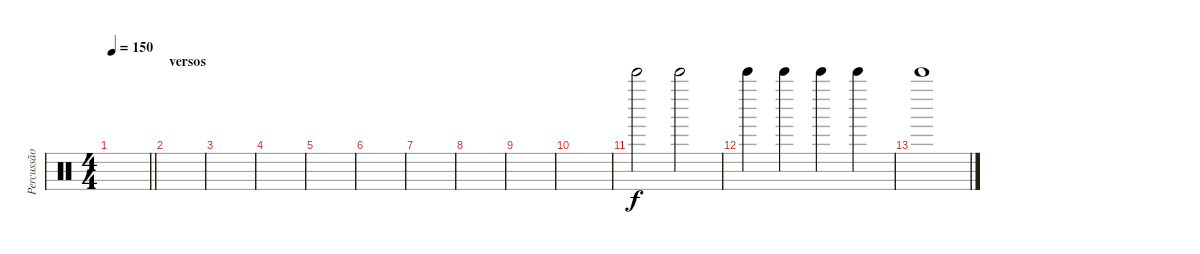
\track ("Percussão" "Percussão") {instrument percussion}
\staff {score}
\articulation defaults
\ts (4 4)
\tempo 150
\clef neutral
\barLineRight lightlight
\ks c
|
\section ("" "versos")
|
|
|
|
|
|
|
|
|
"Bell Tree (hit)".2 "Bell Tree (hit)".2 |
"Bell Tree (hit)".4 "Bell Tree (hit)".4 "Bell Tree (hit)".4 "Bell Tree (hit)".4 |
"Bell Tree (hit)".1
